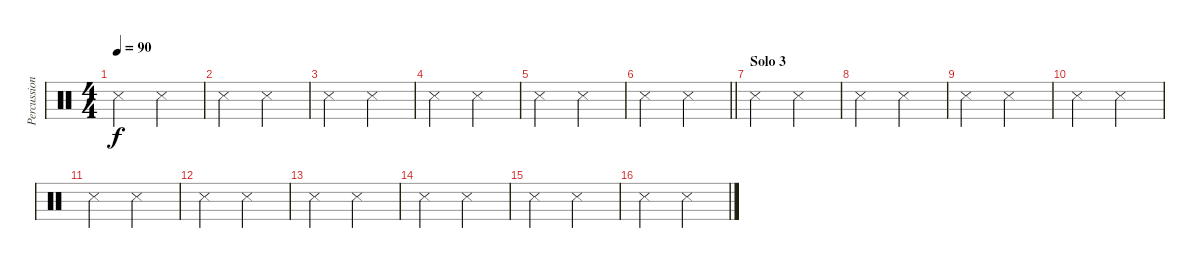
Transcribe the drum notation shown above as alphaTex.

\track ("Percussion" "Percussion") {instrument percussion}
\staff {score}
\articulation defaults
\ts (4 4)
\tempo 90
\clef neutral
\ks c "Snare (side stick) 3".2{dy f} "Snare (side stick) 3".2
|
"Snare (side stick) 3".2 "Snare (side stick) 3".2 |
"Snare (side stick) 3".2 "Snare (side stick) 3".2 |
"Snare (side stick) 3".2 "Snare (side stick) 3".2 |
"Snare (side stick) 3".2 "Snare (side stick) 3".2 |
\barLineRight lightlight "Snare (side stick) 3".2 "Snare (side stick) 3".2
|
\section ("" "Solo 3")
"Snare (side stick) 3".2 "Snare (side stick) 3".2 |
"Snare (side stick) 3".2 "Snare (side stick) 3".2 |
"Snare (side stick) 3".2 "Snare (side stick) 3".2 |
"Snare (side stick) 3".2 "Snare (side stick) 3".2 |
"Snare (side stick) 3".2 "Snare (side stick) 3".2 |
"Snare (side stick) 3".2 "Snare (side stick) 3".2 |
"Snare (side stick) 3".2 "Snare (side stick) 3".2 |
"Snare (side stick) 3".2 "Snare (side stick) 3".2 |
"Snare (side stick) 3".2 "Snare (side stick) 3".2 |
"Snare (side stick) 3".2 "Snare (side stick) 3".2
